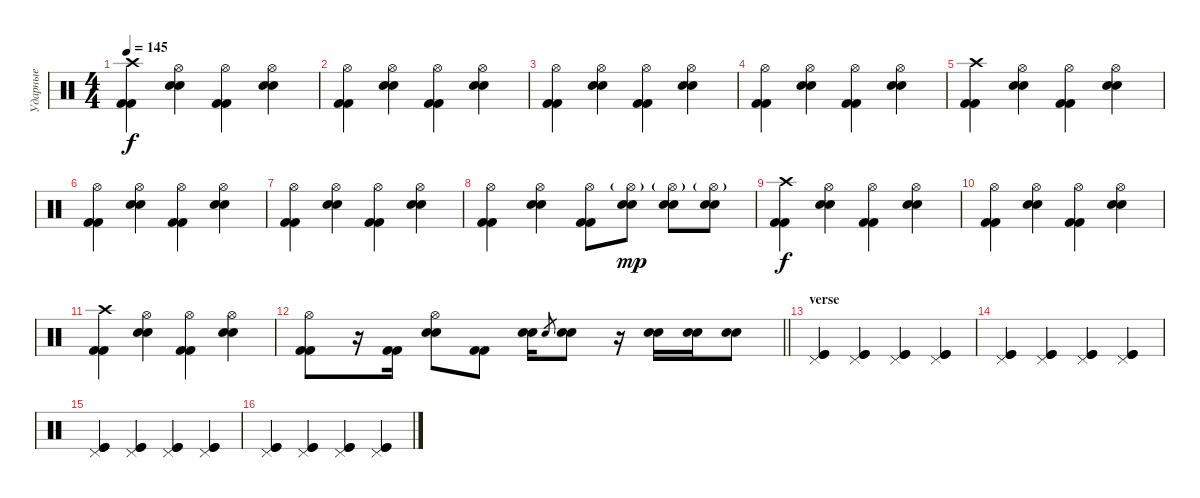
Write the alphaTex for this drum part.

\track ("Ударные" "Ударные") {instrument percussion}
\staff {score}
\articulation defaults
\ts (4 4)
\tempo 145
\clef neutral
\ks c
("Crash high (hit)" "Kick (hit) 2" "Kick (hit) 2").4{dy f} ("Hi-Hat (open)" "Electric Snare (hit)" "Electric Snare (hit)").4 ("Hi-Hat (open)" "Kick (hit) 2" "Kick (hit) 2").4 ("Hi-Hat (open)" "Electric Snare (hit)" "Electric Snare (hit)").4 |
("Hi-Hat (open)" "Kick (hit) 2" "Kick (hit) 2").4 ("Hi-Hat (open)" "Electric Snare (hit)" "Electric Snare (hit)").4 ("Hi-Hat (open)" "Kick (hit) 2" "Kick (hit) 2").4 ("Hi-Hat (open)" "Electric Snare (hit)" "Electric Snare (hit)").4 |
("Hi-Hat (open)" "Kick (hit) 2" "Kick (hit) 2").4 ("Hi-Hat (open)" "Electric Snare (hit)" "Electric Snare (hit)").4 ("Hi-Hat (open)" "Kick (hit) 2" "Kick (hit) 2").4 ("Hi-Hat (open)" "Electric Snare (hit)" "Electric Snare (hit)").4 |
("Hi-Hat (open)" "Kick (hit) 2" "Kick (hit) 2").4 ("Hi-Hat (open)" "Electric Snare (hit)" "Electric Snare (hit)").4 ("Hi-Hat (open)" "Kick (hit) 2" "Kick (hit) 2").4 ("Hi-Hat (open)" "Electric Snare (hit)" "Electric Snare (hit)").4 |
("Crash high (hit)" "Kick (hit) 2" "Kick (hit) 2").4 ("Hi-Hat (open)" "Electric Snare (hit)" "Electric Snare (hit)").4 ("Hi-Hat (open)" "Kick (hit) 2" "Kick (hit) 2").4 ("Hi-Hat (open)" "Electric Snare (hit)" "Electric Snare (hit)").4 |
("Hi-Hat (open)" "Kick (hit) 2" "Kick (hit) 2").4 ("Hi-Hat (open)" "Electric Snare (hit)" "Electric Snare (hit)").4 ("Hi-Hat (open)" "Kick (hit) 2" "Kick (hit) 2").4 ("Hi-Hat (open)" "Electric Snare (hit)" "Electric Snare (hit)").4 |
("Hi-Hat (open)" "Kick (hit) 2" "Kick (hit) 2").4 ("Hi-Hat (open)" "Electric Snare (hit)" "Electric Snare (hit)").4 ("Hi-Hat (open)" "Kick (hit) 2" "Kick (hit) 2").4 ("Hi-Hat (open)" "Electric Snare (hit)" "Electric Snare (hit)").4 |
("Hi-Hat (open)" "Kick (hit) 2" "Kick (hit) 2").4 ("Hi-Hat (open)" "Electric Snare (hit)" "Electric Snare (hit)").4 ("Hi-Hat (open)" "Kick (hit) 2" "Kick (hit) 2").8 ("Hi-Hat (open)"{g} "Electric Snare (hit)" "Electric Snare (hit)").8{dy mp} ("Hi-Hat (open)"{g} "Electric Snare (hit)" "Electric Snare (hit)").8 ("Hi-Hat (open)"{g} "Electric Snare (hit)" "Electric Snare (hit)").8 |
("Crash high (hit)" "Kick (hit) 2" "Kick (hit) 2").4{dy f} ("Hi-Hat (open)" "Electric Snare (hit)" "Electric Snare (hit)").4 ("Hi-Hat (open)" "Kick (hit) 2" "Kick (hit) 2").4 ("Hi-Hat (open)" "Electric Snare (hit)" "Electric Snare (hit)").4 |
("Hi-Hat (open)" "Kick (hit) 2" "Kick (hit) 2").4 ("Hi-Hat (open)" "Electric Snare (hit)" "Electric Snare (hit)").4 ("Hi-Hat (open)" "Kick (hit) 2" "Kick (hit) 2").4 ("Hi-Hat (open)" "Electric Snare (hit)" "Electric Snare (hit)").4 |
("Crash high (hit)" "Kick (hit) 2" "Kick (hit) 2").4 ("Hi-Hat (open)" "Electric Snare (hit)" "Electric Snare (hit)").4 ("Hi-Hat (open)" "Kick (hit) 2" "Kick (hit) 2").4 ("Hi-Hat (open)" "Electric Snare (hit)" "Electric Snare (hit)").4 |
\barLineRight lightlight
("Hi-Hat (open)" "Kick (hit) 2" "Kick (hit) 2").8 r.16 ("Kick (hit) 2" "Kick (hit) 2").16 ("Hi-Hat (open)" "Electric Snare (hit)" "Electric Snare (hit)").8 ("Kick (hit) 2" "Kick (hit) 2").8 ("Electric Snare (hit)" "Electric Snare (hit)").16 "Electric Snare (hit)".8{gr} ("Electric Snare (hit)" "Electric Snare (hit)").8 r.16 ("Electric Snare (hit)" "Electric Snare (hit)").16 ("Electric Snare (hit)" "Electric Snare (hit)").16 ("Electric Snare (hit)" "Electric Snare (hit)").8 |
\section ("" "verse")
("Pedal Hi-Hat (hit)" "Kick (hit)" "Kick (hit)").4 ("Pedal Hi-Hat (hit)" "Kick (hit)" "Kick (hit)").4 ("Pedal Hi-Hat (hit)" "Kick (hit)" "Kick (hit)").4 ("Pedal Hi-Hat (hit)" "Kick (hit)" "Kick (hit)").4 |
("Pedal Hi-Hat (hit)" "Kick (hit)" "Kick (hit)").4 ("Pedal Hi-Hat (hit)" "Kick (hit)" "Kick (hit)").4 ("Pedal Hi-Hat (hit)" "Kick (hit)" "Kick (hit)").4 ("Pedal Hi-Hat (hit)" "Kick (hit)" "Kick (hit)").4 |
("Pedal Hi-Hat (hit)" "Kick (hit)" "Kick (hit)").4 ("Pedal Hi-Hat (hit)" "Kick (hit)" "Kick (hit)").4 ("Pedal Hi-Hat (hit)" "Kick (hit)" "Kick (hit)").4 ("Pedal Hi-Hat (hit)" "Kick (hit)" "Kick (hit)").4 |
("Pedal Hi-Hat (hit)" "Kick (hit)" "Kick (hit)").4 ("Pedal Hi-Hat (hit)" "Kick (hit)" "Kick (hit)").4 ("Pedal Hi-Hat (hit)" "Kick (hit)" "Kick (hit)").4 ("Pedal Hi-Hat (hit)" "Kick (hit)" "Kick (hit)").4
